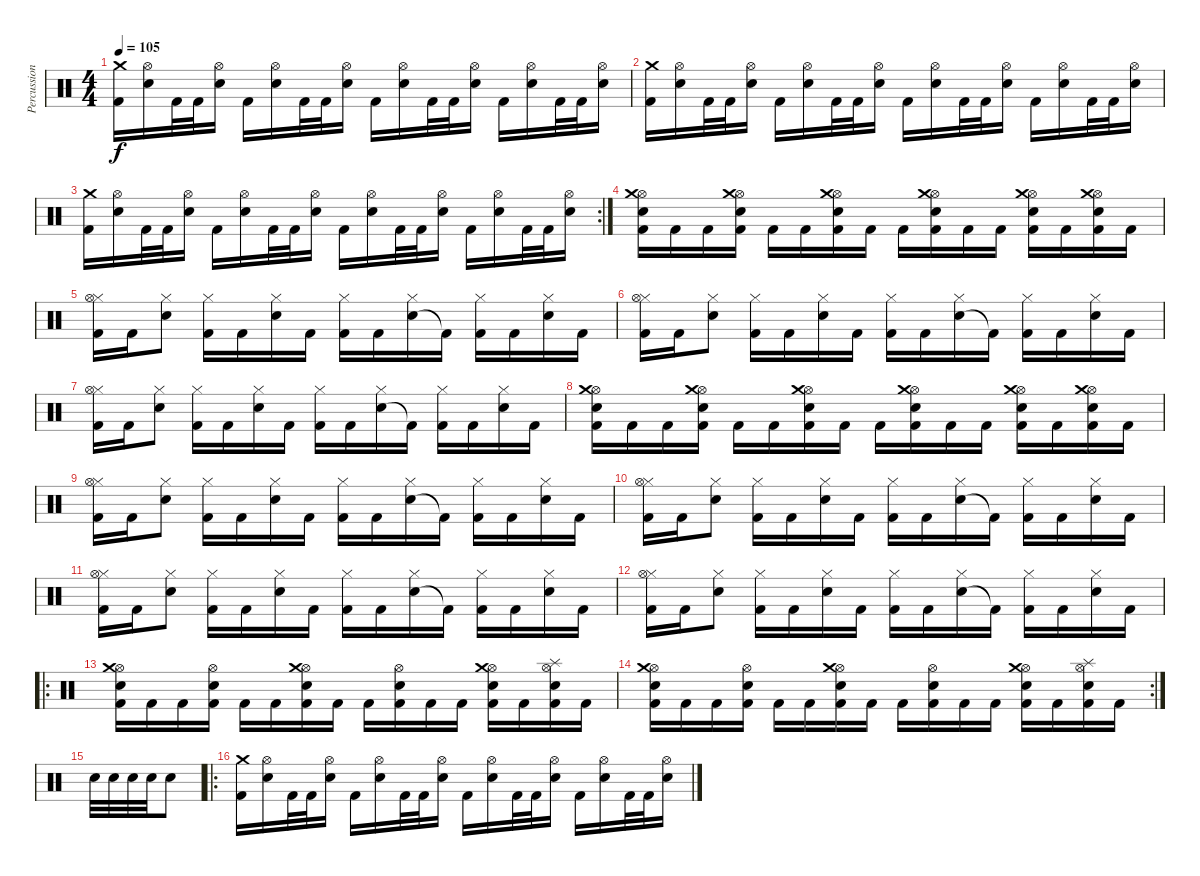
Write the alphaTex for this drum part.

\track ("Percussion" "Percussion") {instrument percussion}
\staff {score}
\articulation defaults
\ts (4 4)
\tempo 105
\clef neutral
\ks c
("Kick (hit) 2" "Crash medium (hit)").16{dy f} ("Electric Snare (hit)" "Hi-Hat (open)").16 "Kick (hit) 2".32 "Kick (hit) 2".32 ("Electric Snare (hit)" "Hi-Hat (open)").16 "Kick (hit) 2".16 ("Electric Snare (hit)" "Hi-Hat (open)").16 "Kick (hit) 2".32 "Kick (hit) 2".32 ("Electric Snare (hit)" "Hi-Hat (open)").16 "Kick (hit) 2".16 ("Electric Snare (hit)" "Hi-Hat (open)").16 "Kick (hit) 2".32 "Kick (hit) 2".32 ("Electric Snare (hit)" "Hi-Hat (open)").16 "Kick (hit) 2".16 ("Electric Snare (hit)" "Hi-Hat (open)").16 "Kick (hit) 2".32 "Kick (hit) 2".32 ("Electric Snare (hit)" "Hi-Hat (open)").16 |
("Kick (hit) 2" "Crash medium (hit)").16 ("Electric Snare (hit)" "Hi-Hat (open)").16 "Kick (hit) 2".32 "Kick (hit) 2".32 ("Electric Snare (hit)" "Hi-Hat (open)").16 "Kick (hit) 2".16 ("Electric Snare (hit)" "Hi-Hat (open)").16 "Kick (hit) 2".32 "Kick (hit) 2".32 ("Electric Snare (hit)" "Hi-Hat (open)").16 "Kick (hit) 2".16 ("Electric Snare (hit)" "Hi-Hat (open)").16 "Kick (hit) 2".32 "Kick (hit) 2".32 ("Electric Snare (hit)" "Hi-Hat (open)").16 "Kick (hit) 2".16 ("Electric Snare (hit)" "Hi-Hat (open)").16 "Kick (hit) 2".32 "Kick (hit) 2".32 ("Electric Snare (hit)" "Hi-Hat (open)").16 |
\rc 2
("Kick (hit) 2" "Crash medium (hit)").16 ("Electric Snare (hit)" "Hi-Hat (open)").16 "Kick (hit) 2".32 "Kick (hit) 2".32 ("Electric Snare (hit)" "Hi-Hat (open)").16 "Kick (hit) 2".16 ("Electric Snare (hit)" "Hi-Hat (open)").16 "Kick (hit) 2".32 "Kick (hit) 2".32 ("Electric Snare (hit)" "Hi-Hat (open)").16 "Kick (hit) 2".16 ("Electric Snare (hit)" "Hi-Hat (open)").16 "Kick (hit) 2".32 "Kick (hit) 2".32 ("Electric Snare (hit)" "Hi-Hat (open)").16 "Kick (hit) 2".16 ("Electric Snare (hit)" "Hi-Hat (open)").16 "Kick (hit) 2".32 "Kick (hit) 2".32 ("Electric Snare (hit)" "Hi-Hat (open)").16 |
("Electric Snare (hit)" "Hi-Hat (open)" "Crash medium (hit)" "Kick (hit) 2").16 "Kick (hit) 2".16 "Kick (hit) 2".16 ("Electric Snare (hit)" "Hi-Hat (open)" "Crash medium (hit)" "Kick (hit) 2").16 "Kick (hit) 2".16 "Kick (hit) 2".16 ("Electric Snare (hit)" "Hi-Hat (open)" "Crash medium (hit)" "Kick (hit) 2").16 "Kick (hit) 2".16 "Kick (hit) 2".16 ("Electric Snare (hit)" "Hi-Hat (open)" "Crash medium (hit)" "Kick (hit) 2").16 "Kick (hit) 2".16 "Kick (hit) 2".16 ("Electric Snare (hit)" "Hi-Hat (open)" "Crash medium (hit)" "Kick (hit) 2").16 "Kick (hit) 2".16 ("Electric Snare (hit)" "Hi-Hat (open)" "Crash medium (hit)" "Kick (hit) 2").16 "Kick (hit) 2".16 |
("Kick (hit) 2" "Hi-Hat (closed)" "Hi-Hat (open)").16 "Kick (hit) 2".16 ("Electric Snare (hit)" "Hi-Hat (closed)").8 ("Kick (hit) 2" "Hi-Hat (closed)").16 "Kick (hit) 2".16 ("Electric Snare (hit)" "Hi-Hat (closed)").16 "Kick (hit) 2".16 ("Kick (hit) 2" "Hi-Hat (closed)").16 "Kick (hit) 2".16 ("Electric Snare (hit)" "Hi-Hat (closed)").16 "Kick (hit) 2"{t}.16 ("Kick (hit) 2" "Hi-Hat (closed)").16 "Kick (hit) 2".16 ("Electric Snare (hit)" "Hi-Hat (closed)").16 "Kick (hit) 2".16 |
("Kick (hit) 2" "Hi-Hat (closed)" "Hi-Hat (open)").16 "Kick (hit) 2".16 ("Electric Snare (hit)" "Hi-Hat (closed)").8 ("Kick (hit) 2" "Hi-Hat (closed)").16 "Kick (hit) 2".16 ("Electric Snare (hit)" "Hi-Hat (closed)").16 "Kick (hit) 2".16 ("Kick (hit) 2" "Hi-Hat (closed)").16 "Kick (hit) 2".16 ("Electric Snare (hit)" "Hi-Hat (closed)").16 "Kick (hit) 2"{t}.16 ("Kick (hit) 2" "Hi-Hat (closed)").16 "Kick (hit) 2".16 ("Electric Snare (hit)" "Hi-Hat (closed)").16 "Kick (hit) 2".16 |
("Kick (hit) 2" "Hi-Hat (closed)" "Hi-Hat (open)").16 "Kick (hit) 2".16 ("Electric Snare (hit)" "Hi-Hat (closed)").8 ("Kick (hit) 2" "Hi-Hat (closed)").16 "Kick (hit) 2".16 ("Electric Snare (hit)" "Hi-Hat (closed)").16 "Kick (hit) 2".16 ("Kick (hit) 2" "Hi-Hat (closed)").16 "Kick (hit) 2".16 ("Electric Snare (hit)" "Hi-Hat (closed)").16 "Kick (hit) 2"{t}.16 ("Kick (hit) 2" "Hi-Hat (closed)").16 "Kick (hit) 2".16 ("Electric Snare (hit)" "Hi-Hat (closed)").16 "Kick (hit) 2".16 |
("Electric Snare (hit)" "Hi-Hat (open)" "Crash medium (hit)" "Kick (hit) 2").16 "Kick (hit) 2".16 "Kick (hit) 2".16 ("Electric Snare (hit)" "Hi-Hat (open)" "Crash medium (hit)" "Kick (hit) 2").16 "Kick (hit) 2".16 "Kick (hit) 2".16 ("Electric Snare (hit)" "Hi-Hat (open)" "Crash medium (hit)" "Kick (hit) 2").16 "Kick (hit) 2".16 "Kick (hit) 2".16 ("Electric Snare (hit)" "Hi-Hat (open)" "Crash medium (hit)" "Kick (hit) 2").16 "Kick (hit) 2".16 "Kick (hit) 2".16 ("Electric Snare (hit)" "Hi-Hat (open)" "Crash medium (hit)" "Kick (hit) 2").16 "Kick (hit) 2".16 ("Electric Snare (hit)" "Hi-Hat (open)" "Crash medium (hit)" "Kick (hit) 2").16 "Kick (hit) 2".16 |
("Kick (hit) 2" "Hi-Hat (closed)" "Hi-Hat (open)").16 "Kick (hit) 2".16 ("Electric Snare (hit)" "Hi-Hat (closed)").8 ("Kick (hit) 2" "Hi-Hat (closed)").16 "Kick (hit) 2".16 ("Electric Snare (hit)" "Hi-Hat (closed)").16 "Kick (hit) 2".16 ("Kick (hit) 2" "Hi-Hat (closed)").16 "Kick (hit) 2".16 ("Electric Snare (hit)" "Hi-Hat (closed)").16 "Kick (hit) 2"{t}.16 ("Kick (hit) 2" "Hi-Hat (closed)").16 "Kick (hit) 2".16 ("Electric Snare (hit)" "Hi-Hat (closed)").16 "Kick (hit) 2".16 |
("Kick (hit) 2" "Hi-Hat (closed)" "Hi-Hat (open)").16 "Kick (hit) 2".16 ("Electric Snare (hit)" "Hi-Hat (closed)").8 ("Kick (hit) 2" "Hi-Hat (closed)").16 "Kick (hit) 2".16 ("Electric Snare (hit)" "Hi-Hat (closed)").16 "Kick (hit) 2".16 ("Kick (hit) 2" "Hi-Hat (closed)").16 "Kick (hit) 2".16 ("Electric Snare (hit)" "Hi-Hat (closed)").16 "Kick (hit) 2"{t}.16 ("Kick (hit) 2" "Hi-Hat (closed)").16 "Kick (hit) 2".16 ("Electric Snare (hit)" "Hi-Hat (closed)").16 "Kick (hit) 2".16 |
("Kick (hit) 2" "Hi-Hat (closed)" "Hi-Hat (open)").16 "Kick (hit) 2".16 ("Electric Snare (hit)" "Hi-Hat (closed)").8 ("Kick (hit) 2" "Hi-Hat (closed)").16 "Kick (hit) 2".16 ("Electric Snare (hit)" "Hi-Hat (closed)").16 "Kick (hit) 2".16 ("Kick (hit) 2" "Hi-Hat (closed)").16 "Kick (hit) 2".16 ("Electric Snare (hit)" "Hi-Hat (closed)").16 "Kick (hit) 2"{t}.16 ("Kick (hit) 2" "Hi-Hat (closed)").16 "Kick (hit) 2".16 ("Electric Snare (hit)" "Hi-Hat (closed)").16 "Kick (hit) 2".16 |
("Kick (hit) 2" "Hi-Hat (closed)" "Hi-Hat (open)").16 "Kick (hit) 2".16 ("Electric Snare (hit)" "Hi-Hat (closed)").8 ("Kick (hit) 2" "Hi-Hat (closed)").16 "Kick (hit) 2".16 ("Electric Snare (hit)" "Hi-Hat (closed)").16 "Kick (hit) 2".16 ("Kick (hit) 2" "Hi-Hat (closed)").16 "Kick (hit) 2".16 ("Electric Snare (hit)" "Hi-Hat (closed)").16 "Kick (hit) 2"{t}.16 ("Kick (hit) 2" "Hi-Hat (closed)").16 "Kick (hit) 2".16 ("Electric Snare (hit)" "Hi-Hat (closed)").16 "Kick (hit) 2".16 |
\ro
("Electric Snare (hit)" "Hi-Hat (open)" "Crash medium (hit)" "Kick (hit) 2").16 "Kick (hit) 2".16 "Kick (hit) 2".16 ("Electric Snare (hit)" "Hi-Hat (open)" "Kick (hit) 2").16 "Kick (hit) 2".16 "Kick (hit) 2".16 ("Electric Snare (hit)" "Hi-Hat (open)" "Crash medium (hit)" "Kick (hit) 2").16 "Kick (hit) 2".16 "Kick (hit) 2".16 ("Electric Snare (hit)" "Hi-Hat (open)" "Kick (hit) 2").16 "Kick (hit) 2".16 "Kick (hit) 2".16 ("Electric Snare (hit)" "Hi-Hat (open)" "Crash medium (hit)" "Kick (hit) 2").16 "Kick (hit) 2".16 ("Electric Snare (hit)" "Hi-Hat (open)" "Splash (hit)" "Kick (hit) 2").16 "Kick (hit) 2".16 |
\rc 2
("Electric Snare (hit)" "Hi-Hat (open)" "Crash medium (hit)" "Kick (hit) 2").16 "Kick (hit) 2".16 "Kick (hit) 2".16 ("Electric Snare (hit)" "Hi-Hat (open)" "Kick (hit) 2").16 "Kick (hit) 2".16 "Kick (hit) 2".16 ("Electric Snare (hit)" "Hi-Hat (open)" "Crash medium (hit)" "Kick (hit) 2").16 "Kick (hit) 2".16 "Kick (hit) 2".16 ("Electric Snare (hit)" "Hi-Hat (open)" "Kick (hit) 2").16 "Kick (hit) 2".16 "Kick (hit) 2".16 ("Electric Snare (hit)" "Hi-Hat (open)" "Crash medium (hit)" "Kick (hit) 2").16 "Kick (hit) 2".16 ("Electric Snare (hit)" "Hi-Hat (open)" "Splash (hit)" "Kick (hit) 2").16 "Kick (hit) 2".16 |
"Electric Snare (hit)".32 "Electric Snare (hit)".32 "Electric Snare (hit)".32 "Electric Snare (hit)".32 "Electric Snare (hit)".8 |
\ro
("Kick (hit) 2" "Crash medium (hit)").16 ("Electric Snare (hit)" "Hi-Hat (open)").16 "Kick (hit) 2".32 "Kick (hit) 2".32 ("Electric Snare (hit)" "Hi-Hat (open)").16 "Kick (hit) 2".16 ("Electric Snare (hit)" "Hi-Hat (open)").16 "Kick (hit) 2".32 "Kick (hit) 2".32 ("Electric Snare (hit)" "Hi-Hat (open)").16 "Kick (hit) 2".16 ("Electric Snare (hit)" "Hi-Hat (open)").16 "Kick (hit) 2".32 "Kick (hit) 2".32 ("Electric Snare (hit)" "Hi-Hat (open)").16 "Kick (hit) 2".16 ("Electric Snare (hit)" "Hi-Hat (open)").16 "Kick (hit) 2".32 "Kick (hit) 2".32 ("Electric Snare (hit)" "Hi-Hat (open)").16
